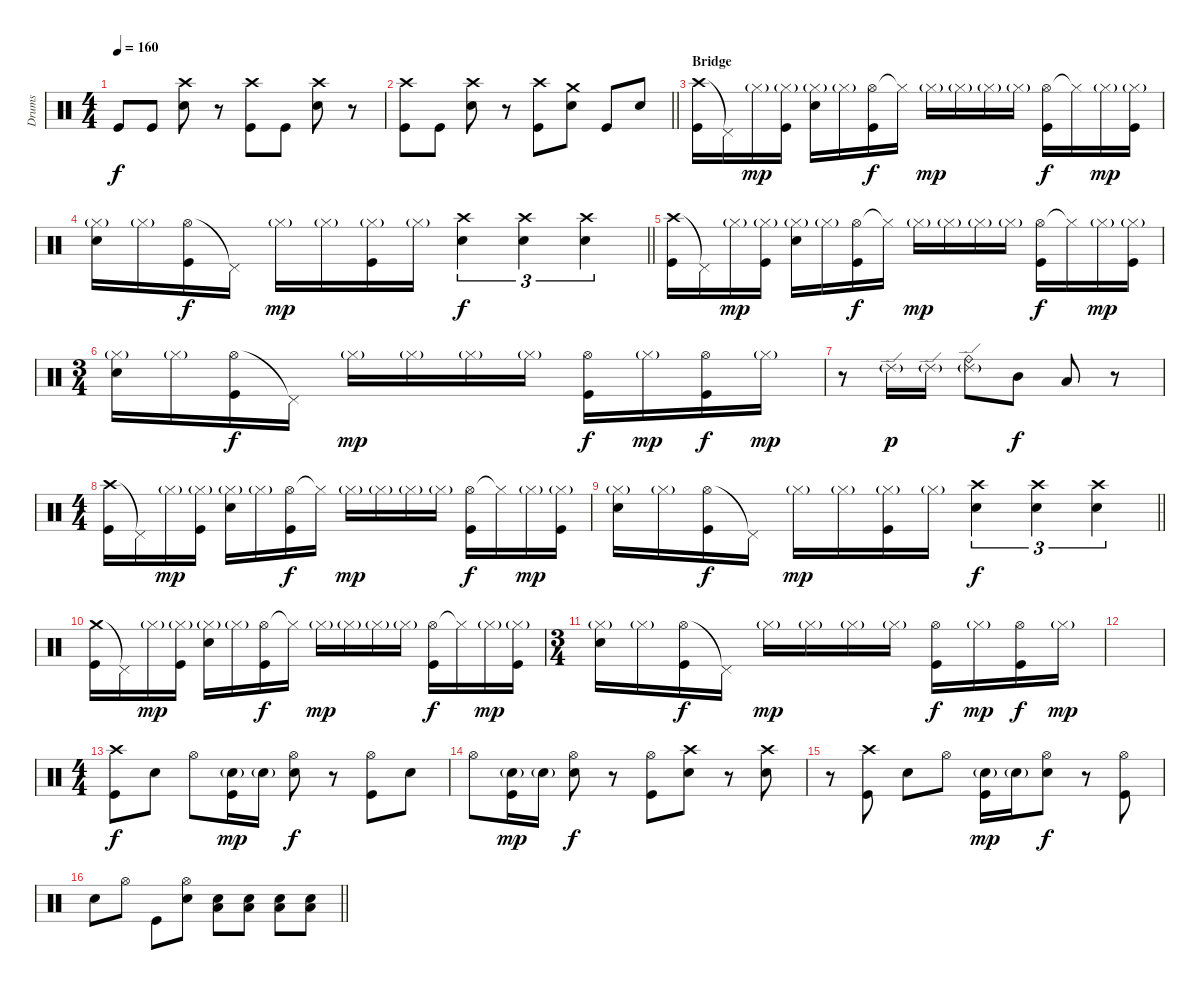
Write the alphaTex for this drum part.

\track ("Drums" "Drums") {instrument percussion}
\staff {score}
\articulation defaults
\ts (4 4)
\tempo 160
\clef neutral
\ks c "Kick (hit)".8{dy f} "Kick (hit)".8
("Crash high (hit)" "Snare (hit) 2").8 r.8 ("Crash high (hit)" "Kick (hit)").8 "Kick (hit)".8 ("Crash high (hit)" "Snare (hit) 2").8 r.8 |
\barLineRight lightlight
("Crash high (hit)" "Kick (hit)").8 "Kick (hit)".8 ("Crash high (hit)" "Snare (hit) 2").8 r.8 ("Crash high (hit)" "Kick (hit)").8 ("Crash medium (hit)" "Snare (hit) 2").8 "Kick (hit)".8 "Snare (hit) 2".8 |
\section ("" "Bridge")
("Crash high (hit)" "Kick (hit)").16 "Pedal Hi-Hat (hit)"{t}.16 "Hi-Hat (closed)"{g}.16{dy mp} ("Hi-Hat (closed)"{g} "Kick (hit)").16 ("Hi-Hat (closed)"{g} "Snare (hit) 2").16 "Hi-Hat (closed)"{g}.16 ("Hi-Hat (open)" "Kick (hit)").16{dy f} "Hi-Hat (closed)"{t}.16 "Hi-Hat (closed)"{g}.16{dy mp} "Hi-Hat (closed)"{g}.16 "Hi-Hat (closed)"{g}.16 "Hi-Hat (closed)"{g}.16 ("Hi-Hat (open)" "Kick (hit)").16{dy f} "Hi-Hat (closed)"{t}.16 "Hi-Hat (closed)"{g}.16{dy mp} ("Hi-Hat (closed)"{g} "Kick (hit)").16 |
\barLineRight lightlight
("Hi-Hat (closed)"{g} "Snare (hit) 2").16 "Hi-Hat (closed)"{g}.16 ("Hi-Hat (open)" "Kick (hit)").16{dy f} "Pedal Hi-Hat (hit)"{t}.16 "Hi-Hat (closed)"{g}.16{dy mp} "Hi-Hat (closed)"{g}.16 ("Hi-Hat (closed)"{g} "Kick (hit)").16 "Hi-Hat (closed)"{g}.16 ("Crash high (hit)" "Snare (hit) 2").4{tu (3 2) dy f} ("Crash high (hit)" "Snare (hit) 2").4{tu (3 2)} ("Crash high (hit)" "Snare (hit) 2").4{tu (3 2)} |
("Crash high (hit)" "Kick (hit)").16 "Pedal Hi-Hat (hit)"{t}.16 "Hi-Hat (closed)"{g}.16{dy mp} ("Hi-Hat (closed)"{g} "Kick (hit)").16 ("Hi-Hat (closed)"{g} "Snare (hit) 2").16 "Hi-Hat (closed)"{g}.16 ("Hi-Hat (open)" "Kick (hit)").16{dy f} "Hi-Hat (closed)"{t}.16 "Hi-Hat (closed)"{g}.16{dy mp} "Hi-Hat (closed)"{g}.16 "Hi-Hat (closed)"{g}.16 "Hi-Hat (closed)"{g}.16 ("Hi-Hat (open)" "Kick (hit)").16{dy f} "Hi-Hat (closed)"{t}.16 "Hi-Hat (closed)"{g}.16{dy mp} ("Hi-Hat (closed)"{g} "Kick (hit)").16 |
\ts (3 4)
("Hi-Hat (closed)"{g} "Snare (hit) 2").16 "Hi-Hat (closed)"{g}.16 ("Hi-Hat (open)" "Kick (hit)").16{dy f} "Pedal Hi-Hat (hit)"{t}.16 "Hi-Hat (closed)"{g}.16{dy mp} "Hi-Hat (closed)"{g}.16 "Hi-Hat (closed)"{g}.16 "Hi-Hat (closed)"{g}.16 ("Hi-Hat (open)" "Kick (hit)").16{dy f} "Hi-Hat (closed)"{g}.16{dy mp} ("Hi-Hat (open)" "Kick (hit)").16{dy f} "Hi-Hat (closed)"{g}.16{dy mp} |
r.8 "Ride (edge) 2"{g}.16{dy p} "Ride (edge) 2"{g}.16 ("Ride (bell)" "Ride (edge) 2"{g}).8 "Mid Tom (hit)".8{dy f} "Low Floor Tom (hit)".8 r.8 |
\ts (4 4)
("Crash high (hit)" "Kick (hit)").16 "Pedal Hi-Hat (hit)"{t}.16 "Hi-Hat (closed)"{g}.16{dy mp} ("Hi-Hat (closed)"{g} "Kick (hit)").16 ("Hi-Hat (closed)"{g} "Snare (hit) 2").16 "Hi-Hat (closed)"{g}.16 ("Hi-Hat (open)" "Kick (hit)").16{dy f} "Hi-Hat (closed)"{t}.16 "Hi-Hat (closed)"{g}.16{dy mp} "Hi-Hat (closed)"{g}.16 "Hi-Hat (closed)"{g}.16 "Hi-Hat (closed)"{g}.16 ("Hi-Hat (open)" "Kick (hit)").16{dy f} "Hi-Hat (closed)"{t}.16 "Hi-Hat (closed)"{g}.16{dy mp} ("Hi-Hat (closed)"{g} "Kick (hit)").16 |
\barLineRight lightlight
("Hi-Hat (closed)"{g} "Snare (hit) 2").16 "Hi-Hat (closed)"{g}.16 ("Hi-Hat (open)" "Kick (hit)").16{dy f} "Pedal Hi-Hat (hit)"{t}.16 "Hi-Hat (closed)"{g}.16{dy mp} "Hi-Hat (closed)"{g}.16 ("Hi-Hat (closed)"{g} "Kick (hit)").16 "Hi-Hat (closed)"{g}.16 ("Crash high (hit)" "Snare (hit) 2").4{tu (3 2) dy f} ("Crash high (hit)" "Snare (hit) 2").4{tu (3 2)} ("Crash high (hit)" "Snare (hit) 2").4{tu (3 2)} |
("Crash medium (hit)" "Kick (hit)").16 "Pedal Hi-Hat (hit)"{t}.16 "Hi-Hat (closed)"{g}.16{dy mp} ("Hi-Hat (closed)"{g} "Kick (hit)").16 ("Hi-Hat (closed)"{g} "Snare (hit) 2").16 "Hi-Hat (closed)"{g}.16 ("Hi-Hat (open)" "Kick (hit)").16{dy f} "Hi-Hat (closed)"{t}.16 "Hi-Hat (closed)"{g}.16{dy mp} "Hi-Hat (closed)"{g}.16 "Hi-Hat (closed)"{g}.16 "Hi-Hat (closed)"{g}.16 ("Hi-Hat (open)" "Kick (hit)").16{dy f} "Hi-Hat (closed)"{t}.16 "Hi-Hat (closed)"{g}.16{dy mp} ("Hi-Hat (closed)"{g} "Kick (hit)").16 |
\ts (3 4)
("Hi-Hat (closed)"{g} "Snare (hit) 2").16 "Hi-Hat (closed)"{g}.16 ("Hi-Hat (open)" "Kick (hit)").16{dy f} "Pedal Hi-Hat (hit)"{t}.16 "Hi-Hat (closed)"{g}.16{dy mp} "Hi-Hat (closed)"{g}.16 "Hi-Hat (closed)"{g}.16 "Hi-Hat (closed)"{g}.16 ("Hi-Hat (open)" "Kick (hit)").16{dy f} "Hi-Hat (closed)"{g}.16{dy mp} ("Hi-Hat (open)" "Kick (hit)").16{dy f} "Hi-Hat (closed)"{g}.16{dy mp} |
|
\ts (4 4)
("Crash high (hit)" "Kick (hit)").8{dy f} "Snare (hit) 2".8 "Hi-Hat (open)".8 ("Snare (hit) 2"{g} "Kick (hit)").16{dy mp} "Snare (hit) 2"{g}.16 ("Hi-Hat (open)" "Snare (hit) 2").8{dy f} r.8 ("Hi-Hat (open)" "Kick (hit)").8 "Snare (hit) 2".8 |
"Hi-Hat (open)".8 ("Snare (hit) 2"{g} "Kick (hit)").16{dy mp} "Snare (hit) 2"{g}.16 ("Hi-Hat (open)" "Snare (hit) 2").8{dy f} r.8 ("Hi-Hat (open)" "Kick (hit)").8 ("Crash high (hit)" "Snare (hit) 2").8 r.8 ("Crash high (hit)" "Snare (hit) 2").8 |
r.8 ("Crash high (hit)" "Kick (hit)").8 "Snare (hit) 2".8 "Hi-Hat (open)".8 ("Snare (hit) 2"{g} "Kick (hit)").16{dy mp} "Snare (hit) 2"{g}.16 ("Hi-Hat (open)" "Snare (hit) 2").8{dy f} r.8 ("Hi-Hat (open)" "Kick (hit)").8 |
\barLineRight lightlight "Snare (hit) 2".8 "Hi-Hat (open)".8 "Kick (hit)".8
("Hi-Hat (open)" "Snare (hit) 2").8 ("Low Floor Tom (hit)" "Snare (hit) 2").8 ("Low Floor Tom (hit)" "Snare (hit) 2").8 ("Low Floor Tom (hit)" "Snare (hit) 2").8 ("Low Floor Tom (hit)" "Snare (hit) 2").8
